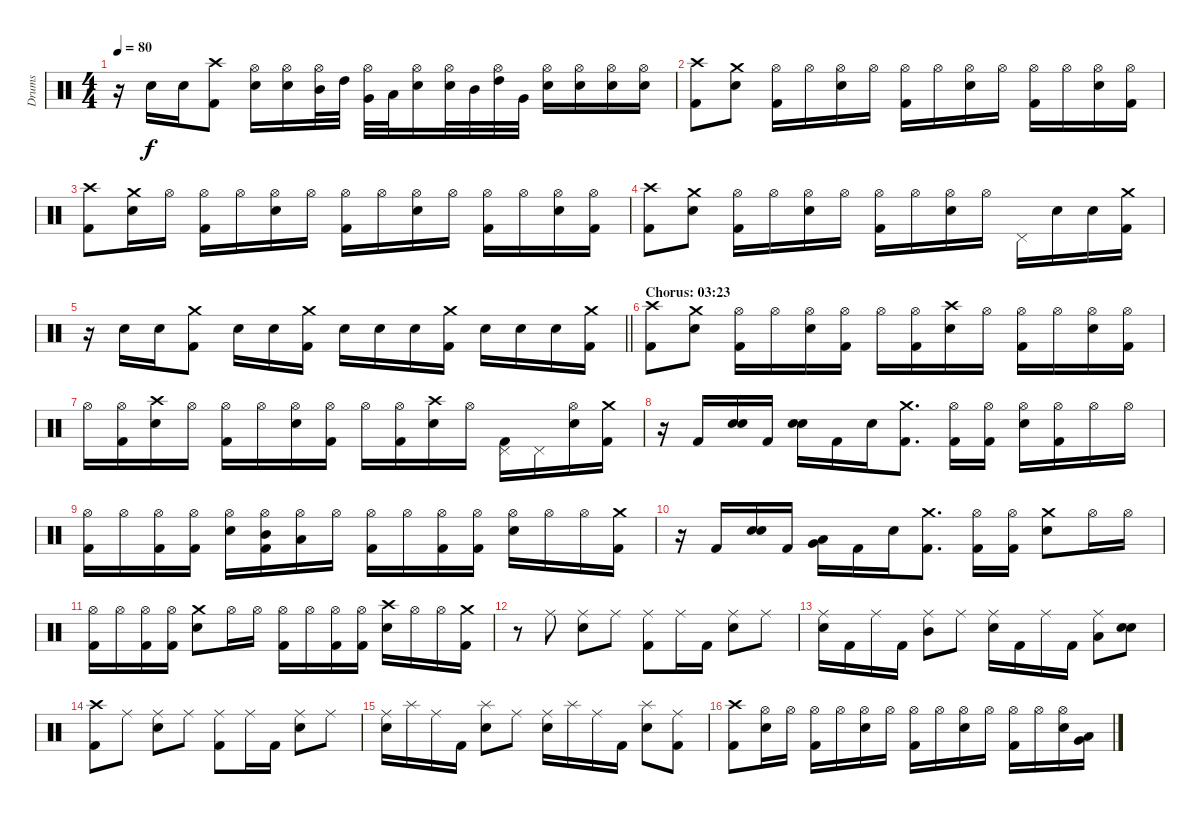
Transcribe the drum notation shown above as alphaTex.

\track ("Drums" "Drums") {instrument percussion}
\staff {score}
\articulation defaults
\ts (4 4)
\tempo 80
\clef neutral
\ks c
r.16{dy f} "Electric Snare (hit)".16 "Electric Snare (hit)".16 ("Crash high (hit)" "Kick (hit) 2").8 ("Hi-Hat (open)" "Electric Snare (hit)").16 ("Hi-Hat (open)" "Electric Snare (hit)").16 ("Hi-Hat (open)" "Mid Tom (hit)").32 "High Tom (hit)".32 ("Hi-Hat (open)" "Very Low Tom (hit)").32 "Low Tom (hit)".32 ("Hi-Hat (open)" "Electric Snare (hit)").16 ("Hi-Hat (open)" "Electric Snare (hit)").32 "Mid Tom (hit)".32 ("Hi-Hat (open)" "High Tom (hit)").32 "Very Low Tom (hit)".32 ("Hi-Hat (open)" "Electric Snare (hit)").16 ("Hi-Hat (open)" "Electric Snare (hit)").16 ("Hi-Hat (open)" "Electric Snare (hit)").16 ("Hi-Hat (open)" "Electric Snare (hit)").16 |
("Crash high (hit)" "Kick (hit) 2").8 ("Crash medium (hit)" "Electric Snare (hit)").8 ("Hi-Hat (open)" "Kick (hit) 2").16 "Hi-Hat (open)".16 ("Hi-Hat (open)" "Electric Snare (hit)").16 "Hi-Hat (open)".16 ("Hi-Hat (open)" "Kick (hit) 2").16 "Hi-Hat (open)".16 ("Hi-Hat (open)" "Electric Snare (hit)").16 "Hi-Hat (open)".16 ("Hi-Hat (open)" "Kick (hit) 2").16 "Hi-Hat (open)".16 ("Hi-Hat (open)" "Electric Snare (hit)").16 ("Hi-Hat (open)" "Kick (hit) 2").16 |
("Crash high (hit)" "Kick (hit) 2").8 ("Crash medium (hit)" "Electric Snare (hit)").16 "Hi-Hat (open)".16 ("Hi-Hat (open)" "Kick (hit) 2").16 "Hi-Hat (open)".16 ("Hi-Hat (open)" "Electric Snare (hit)").16 "Hi-Hat (open)".16 ("Hi-Hat (open)" "Kick (hit) 2").16 "Hi-Hat (open)".16 ("Hi-Hat (open)" "Electric Snare (hit)").16 "Hi-Hat (open)".16 ("Hi-Hat (open)" "Kick (hit) 2").16 "Hi-Hat (open)".16 ("Hi-Hat (open)" "Electric Snare (hit)").16 ("Hi-Hat (open)" "Kick (hit) 2").16 |
("Crash high (hit)" "Kick (hit) 2").8 ("Crash medium (hit)" "Electric Snare (hit)").8 ("Hi-Hat (open)" "Kick (hit) 2").16 "Hi-Hat (open)".16 ("Hi-Hat (open)" "Electric Snare (hit)").16 "Hi-Hat (open)".16 ("Hi-Hat (open)" "Kick (hit) 2").16 "Hi-Hat (open)".16 ("Hi-Hat (open)" "Electric Snare (hit)").16 "Hi-Hat (open)".16 "Pedal Hi-Hat (hit)".16 "Electric Snare (hit)".16 "Electric Snare (hit)".16 ("Crash medium (hit)" "Kick (hit) 2").16 |
\barLineRight lightlight
r.16 "Electric Snare (hit)".16 "Electric Snare (hit)".16 ("Crash medium (hit)" "Kick (hit) 2").8 "Electric Snare (hit)".16 "Electric Snare (hit)".16 ("Crash medium (hit)" "Kick (hit) 2").16 "Electric Snare (hit)".16 "Electric Snare (hit)".16 "Electric Snare (hit)".16 ("Crash medium (hit)" "Kick (hit) 2").16 "Electric Snare (hit)".16 "Electric Snare (hit)".16 "Electric Snare (hit)".16 ("Crash medium (hit)" "Kick (hit) 2").16 |
\section ("" "Chorus: 03:23")
("Crash high (hit)" "Kick (hit) 2").8 ("Crash medium (hit)" "Electric Snare (hit)").8 ("Hi-Hat (open)" "Kick (hit) 2").16 "Hi-Hat (open)".16 ("Hi-Hat (open)" "Electric Snare (hit)").16 ("Hi-Hat (open)" "Kick (hit) 2").16 "Hi-Hat (open)".16 ("Hi-Hat (open)" "Kick (hit) 2").16 ("Crash high (hit)" "Electric Snare (hit)").16 "Hi-Hat (open)".16 ("Hi-Hat (open)" "Kick (hit) 2").16 "Hi-Hat (open)".16 ("Hi-Hat (open)" "Electric Snare (hit)").16 ("Hi-Hat (open)" "Kick (hit) 2").16 |
"Hi-Hat (open)".16 ("Hi-Hat (open)" "Kick (hit) 2").16 ("Crash high (hit)" "Electric Snare (hit)").16 "Hi-Hat (open)".16 ("Hi-Hat (open)" "Kick (hit) 2").16 "Hi-Hat (open)".16 ("Hi-Hat (open)" "Electric Snare (hit)").16 ("Hi-Hat (open)" "Kick (hit) 2").16 "Hi-Hat (open)".16 ("Hi-Hat (open)" "Kick (hit) 2").16 ("Crash high (hit)" "Electric Snare (hit)").16 "Hi-Hat (open)".16 ("Pedal Hi-Hat (hit)" "Kick (hit) 2").16 "Pedal Hi-Hat (hit)".16 ("Hi-Hat (open)" "Electric Snare (hit)").16 ("Crash medium (hit)" "Kick (hit) 2").16 |
r.16 "Kick (hit) 2".16 ("Electric Snare (hit)" "Electric Snare (hit)").16{bd 120} "Kick (hit) 2".16 ("Electric Snare (hit)" "Electric Snare (hit)").16{bd 120} "Kick (hit) 2".16 "Electric Snare (hit)".16 ("Crash medium (hit)" "Kick (hit) 2").8{d} ("Hi-Hat (open)" "Kick (hit) 2").16 ("Hi-Hat (open)" "Kick (hit) 2").16 ("Hi-Hat (open)" "Electric Snare (hit)").16 ("Hi-Hat (open)" "Kick (hit) 2").16 "Hi-Hat (open)".16 "Hi-Hat (open)".16 |
("Hi-Hat (open)" "Kick (hit) 2").16 "Hi-Hat (open)".16 ("Hi-Hat (open)" "Kick (hit) 2").16 ("Hi-Hat (open)" "Kick (hit) 2").16 ("Hi-Hat (open)" "Electric Snare (hit)").16 ("Hi-Hat (open)" "Mid Tom (hit)" "Kick (hit) 2").16 ("Hi-Hat (open)" "Low Tom (hit)").16 "Hi-Hat (open)".16 ("Hi-Hat (open)" "Kick (hit) 2").16 "Hi-Hat (open)".16 ("Hi-Hat (open)" "Kick (hit) 2").16 ("Hi-Hat (open)" "Kick (hit) 2").16 ("Hi-Hat (open)" "Electric Snare (hit)").16 "Hi-Hat (open)".16 "Hi-Hat (open)".16 ("Crash medium (hit)" "Kick (hit) 2").16 |
r.16 "Kick (hit) 2".16 ("Electric Snare (hit)" "Electric Snare (hit)").16{bd 120} "Kick (hit) 2".16 ("Very Low Tom (hit)" "Low Floor Tom (hit)").16{bd 120} "Kick (hit) 2".16 "Electric Snare (hit)".16 ("Crash medium (hit)" "Kick (hit) 2").8{d} ("Hi-Hat (open)" "Kick (hit) 2").16 ("Hi-Hat (open)" "Kick (hit) 2").16 ("Crash medium (hit)" "Electric Snare (hit)").8 "Hi-Hat (open)".16 "Hi-Hat (open)".16 |
("Hi-Hat (open)" "Kick (hit) 2").16 "Hi-Hat (open)".16 ("Hi-Hat (open)" "Kick (hit) 2").16 ("Hi-Hat (open)" "Kick (hit) 2").16 ("Crash medium (hit)" "Electric Snare (hit)").8 "Hi-Hat (open)".16 "Hi-Hat (open)".16 ("Hi-Hat (open)" "Kick (hit) 2").16 "Hi-Hat (open)".16 ("Hi-Hat (open)" "Kick (hit) 2").16 ("Hi-Hat (open)" "Kick (hit) 2").16 ("Crash high (hit)" "Electric Snare (hit)").16 "Hi-Hat (open)".16 "Hi-Hat (open)".16 ("Crash medium (hit)" "Kick (hit) 2").16 |
r.8 "Ride (middle)".8 ("Ride (middle)" "Electric Snare (hit)").8 "Ride (middle)".8 ("Ride (middle)" "Kick (hit) 2").8 "Ride (middle)".16 "Kick (hit) 2".16 ("Ride (middle)" "Electric Snare (hit)").8 "Ride (middle)".8 |
("Ride (middle)" "Electric Snare (hit)").16 "Kick (hit) 2".16 "Ride (middle)".16 "Kick (hit) 2".16 ("Ride (middle)" "Mid Tom (hit)").8 "Ride (middle)".8 ("Ride (middle)" "Electric Snare (hit)").16 "Kick (hit) 2".16 "Ride (middle)".16 "Kick (hit) 2".16 ("Ride (middle)" "Low Tom (hit)").8 ("Electric Snare (hit)" "Electric Snare (hit)").8{bd 120} |
("Crash high (hit)" "Kick (hit) 2").8 "Ride (middle)".8 ("Ride (middle)" "Electric Snare (hit)").8 "Ride (middle)".8 ("Ride (middle)" "Kick (hit) 2").8 "Ride (middle)".16 "Kick (hit) 2".16 ("Ride (middle)" "Electric Snare (hit)").8 "Ride (middle)".8 |
("Ride (middle)" "Electric Snare (hit)").16 "Splash (hit)".16 "Ride (middle)".16 "Kick (hit) 2".16 ("Splash (hit)" "Electric Snare (hit)").8 "Ride (middle)".8 ("Ride (middle)" "Electric Snare (hit)").16 "Splash (hit)".16 "Ride (middle)".16 "Kick (hit) 2".16 ("Splash (hit)" "Electric Snare (hit)").8 ("Ride (middle)" "Kick (hit) 2").8 |
("Crash high (hit)" "Kick (hit) 2").8 ("Hi-Hat (open)" "Electric Snare (hit)").16 "Hi-Hat (open)".16 ("Hi-Hat (open)" "Kick (hit) 2").16 "Hi-Hat (open)".16 ("Hi-Hat (open)" "Electric Snare (hit)").16 "Hi-Hat (open)".16 ("Hi-Hat (open)" "Kick (hit) 2").16 "Hi-Hat (open)".16 ("Hi-Hat (open)" "Electric Snare (hit)").16 "Hi-Hat (open)".16 ("Hi-Hat (open)" "Kick (hit) 2").16 "Hi-Hat (open)".16 ("Hi-Hat (open)" "Electric Snare (hit)").16 ("Very Low Tom (hit)" "Low Floor Tom (hit)").16
